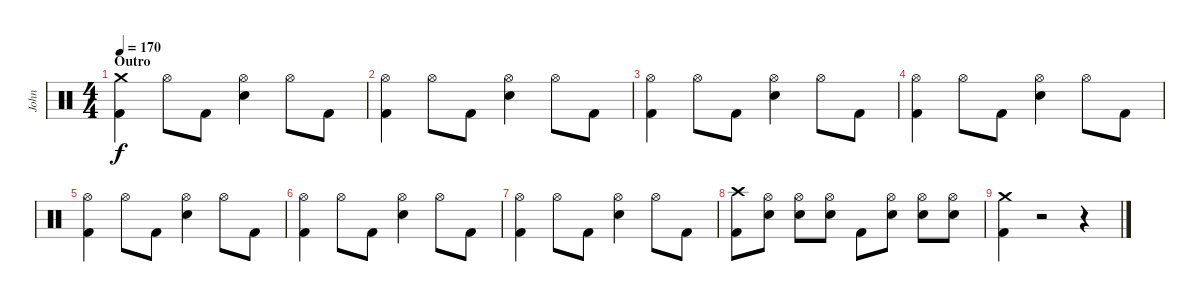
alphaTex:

\track ("John" "John") {instrument percussion}
\staff {score}
\articulation defaults
\ts (4 4)
\section ("" "Outro")
\tempo 170
\clef neutral
\ks c
("Crash medium (hit)" "Kick (hit) 2").4{dy f} "Hi-Hat (open)".8 "Kick (hit) 2".8 ("Hi-Hat (open)" "Electric Snare (hit)").4 "Hi-Hat (open)".8 "Kick (hit) 2".8 |
("Hi-Hat (open)" "Kick (hit) 2").4 "Hi-Hat (open)".8 "Kick (hit) 2".8 ("Hi-Hat (open)" "Electric Snare (hit)").4 "Hi-Hat (open)".8 "Kick (hit) 2".8 |
("Hi-Hat (open)" "Kick (hit) 2").4 "Hi-Hat (open)".8 "Kick (hit) 2".8 ("Hi-Hat (open)" "Electric Snare (hit)").4 "Hi-Hat (open)".8 "Kick (hit) 2".8 |
("Hi-Hat (open)" "Kick (hit) 2").4 "Hi-Hat (open)".8 "Kick (hit) 2".8 ("Hi-Hat (open)" "Electric Snare (hit)").4 "Hi-Hat (open)".8 "Kick (hit) 2".8 |
("Hi-Hat (open)" "Kick (hit) 2").4 "Hi-Hat (open)".8 "Kick (hit) 2".8 ("Hi-Hat (open)" "Electric Snare (hit)").4 "Hi-Hat (open)".8 "Kick (hit) 2".8 |
("Hi-Hat (open)" "Kick (hit) 2").4 "Hi-Hat (open)".8 "Kick (hit) 2".8 ("Hi-Hat (open)" "Electric Snare (hit)").4 "Hi-Hat (open)".8 "Kick (hit) 2".8 |
("Hi-Hat (open)" "Kick (hit) 2").4 "Hi-Hat (open)".8 "Kick (hit) 2".8 ("Hi-Hat (open)" "Electric Snare (hit)").4 "Hi-Hat (open)".8 "Kick (hit) 2".8 |
("Crash high (hit)" "Kick (hit) 2").8 ("Hi-Hat (open)" "Electric Snare (hit)").8 ("Hi-Hat (open)" "Electric Snare (hit)").8 ("Hi-Hat (open)" "Electric Snare (hit)").8 "Kick (hit) 2".8 ("Hi-Hat (open)" "Electric Snare (hit)").8 ("Hi-Hat (open)" "Electric Snare (hit)").8 ("Hi-Hat (open)" "Electric Snare (hit)").8 |
("Crash medium (hit)" "Kick (hit) 2").4 r.2 r.4
